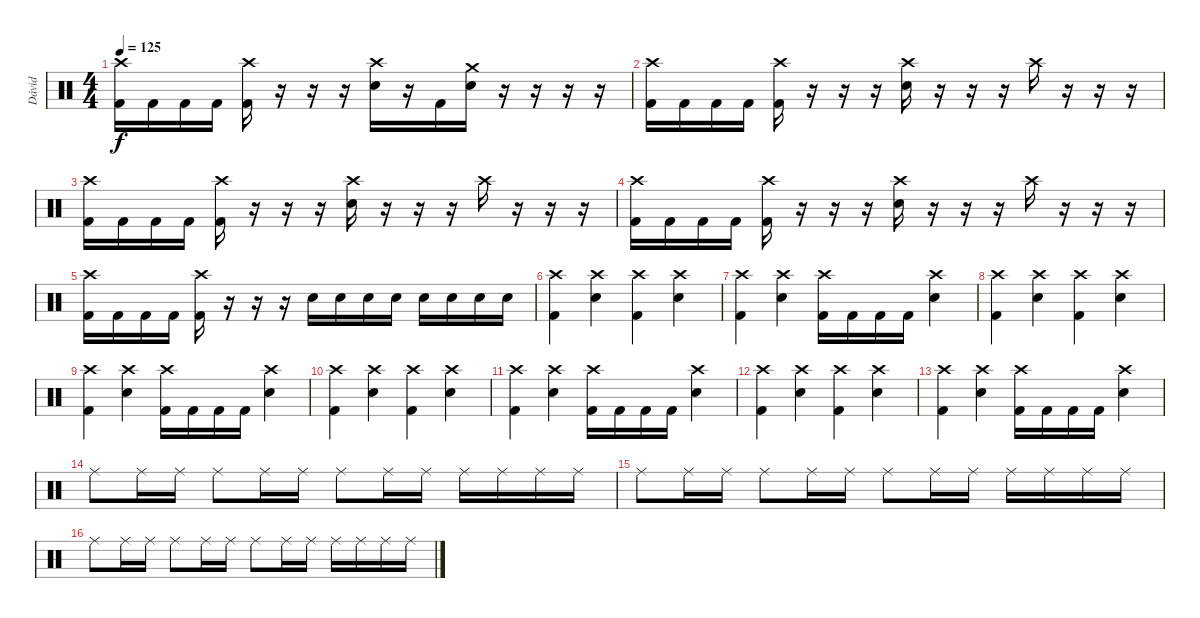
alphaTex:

\track ("Dávid" "Dávid") {instrument percussion}
\staff {score}
\articulation defaults
\ts (4 4)
\tempo 125
\clef neutral
\ks c
("Crash high (hit)" "Kick (hit) 2").16{dy f} "Kick (hit) 2".16 "Kick (hit) 2".16 "Kick (hit) 2".16 ("Crash high (hit)" "Kick (hit) 2").16 r.16 r.16 r.16 ("Crash high (hit)" "Electric Snare (hit)").16 r.16 "Kick (hit) 2".16 ("Crash medium (hit)" "Electric Snare (hit)").16 r.16 r.16 r.16 r.16 |
("Crash high (hit)" "Kick (hit) 2").16 "Kick (hit) 2".16 "Kick (hit) 2".16 "Kick (hit) 2".16 ("Crash high (hit)" "Kick (hit) 2").16 r.16 r.16 r.16 ("Crash high (hit)" "Electric Snare (hit)").16 r.16 r.16 r.16 "Crash high (hit)".16 r.16 r.16 r.16 |
("Crash high (hit)" "Kick (hit) 2").16 "Kick (hit) 2".16 "Kick (hit) 2".16 "Kick (hit) 2".16 ("Crash high (hit)" "Kick (hit) 2").16 r.16 r.16 r.16 ("Crash high (hit)" "Electric Snare (hit)").16 r.16 r.16 r.16 "Crash high (hit)".16 r.16 r.16 r.16 |
("Crash high (hit)" "Kick (hit) 2").16 "Kick (hit) 2".16 "Kick (hit) 2".16 "Kick (hit) 2".16 ("Crash high (hit)" "Kick (hit) 2").16 r.16 r.16 r.16 ("Crash high (hit)" "Electric Snare (hit)").16 r.16 r.16 r.16 "Crash high (hit)".16 r.16 r.16 r.16 |
("Crash high (hit)" "Kick (hit) 2").16 "Kick (hit) 2".16 "Kick (hit) 2".16 "Kick (hit) 2".16 ("Crash high (hit)" "Kick (hit) 2").16 r.16 r.16 r.16 "Electric Snare (hit)".16 "Electric Snare (hit)".16 "Electric Snare (hit)".16 "Electric Snare (hit)".16 "Electric Snare (hit)".16 "Electric Snare (hit)".16 "Electric Snare (hit)".16 "Electric Snare (hit)".16 |
("Crash high (hit)" "Kick (hit) 2").4 ("Crash high (hit)" "Electric Snare (hit)").4 ("Crash high (hit)" "Kick (hit) 2").4 ("Crash high (hit)" "Electric Snare (hit)").4 |
("Crash high (hit)" "Kick (hit) 2").4 ("Crash high (hit)" "Electric Snare (hit)").4 ("Crash high (hit)" "Kick (hit) 2").16 "Kick (hit) 2".16 "Kick (hit) 2".16 "Kick (hit) 2".16 ("Crash high (hit)" "Electric Snare (hit)").4 |
("Crash high (hit)" "Kick (hit) 2").4 ("Crash high (hit)" "Electric Snare (hit)").4 ("Crash high (hit)" "Kick (hit) 2").4 ("Crash high (hit)" "Electric Snare (hit)").4 |
("Crash high (hit)" "Kick (hit) 2").4 ("Crash high (hit)" "Electric Snare (hit)").4 ("Crash high (hit)" "Kick (hit) 2").16 "Kick (hit) 2".16 "Kick (hit) 2".16 "Kick (hit) 2".16 ("Crash high (hit)" "Electric Snare (hit)").4 |
("Crash high (hit)" "Kick (hit) 2").4 ("Crash high (hit)" "Electric Snare (hit)").4 ("Crash high (hit)" "Kick (hit) 2").4 ("Crash high (hit)" "Electric Snare (hit)").4 |
("Crash high (hit)" "Kick (hit) 2").4 ("Crash high (hit)" "Electric Snare (hit)").4 ("Crash high (hit)" "Kick (hit) 2").16 "Kick (hit) 2".16 "Kick (hit) 2".16 "Kick (hit) 2".16 ("Crash high (hit)" "Electric Snare (hit)").4 |
("Crash high (hit)" "Kick (hit) 2").4 ("Crash high (hit)" "Electric Snare (hit)").4 ("Crash high (hit)" "Kick (hit) 2").4 ("Crash high (hit)" "Electric Snare (hit)").4 |
("Crash high (hit)" "Kick (hit) 2").4 ("Crash high (hit)" "Electric Snare (hit)").4 ("Crash high (hit)" "Kick (hit) 2").16 "Kick (hit) 2".16 "Kick (hit) 2".16 "Kick (hit) 2".16 ("Crash high (hit)" "Electric Snare (hit)").4 |
"Ride (middle)".8 "Ride (middle)".16 "Ride (middle)".16 "Ride (middle)".8 "Ride (middle)".16 "Ride (middle)".16 "Ride (middle)".8 "Ride (middle)".16 "Ride (middle)".16 "Ride (middle)".16 "Ride (middle)".16 "Ride (middle)".16 "Ride (middle)".16 |
"Ride (middle)".8 "Ride (middle)".16 "Ride (middle)".16 "Ride (middle)".8 "Ride (middle)".16 "Ride (middle)".16 "Ride (middle)".8 "Ride (middle)".16 "Ride (middle)".16 "Ride (middle)".16 "Ride (middle)".16 "Ride (middle)".16 "Ride (middle)".16 |
"Ride (middle)".8 "Ride (middle)".16 "Ride (middle)".16 "Ride (middle)".8 "Ride (middle)".16 "Ride (middle)".16 "Ride (middle)".8 "Ride (middle)".16 "Ride (middle)".16 "Ride (middle)".16 "Ride (middle)".16 "Ride (middle)".16 "Ride (middle)".16
